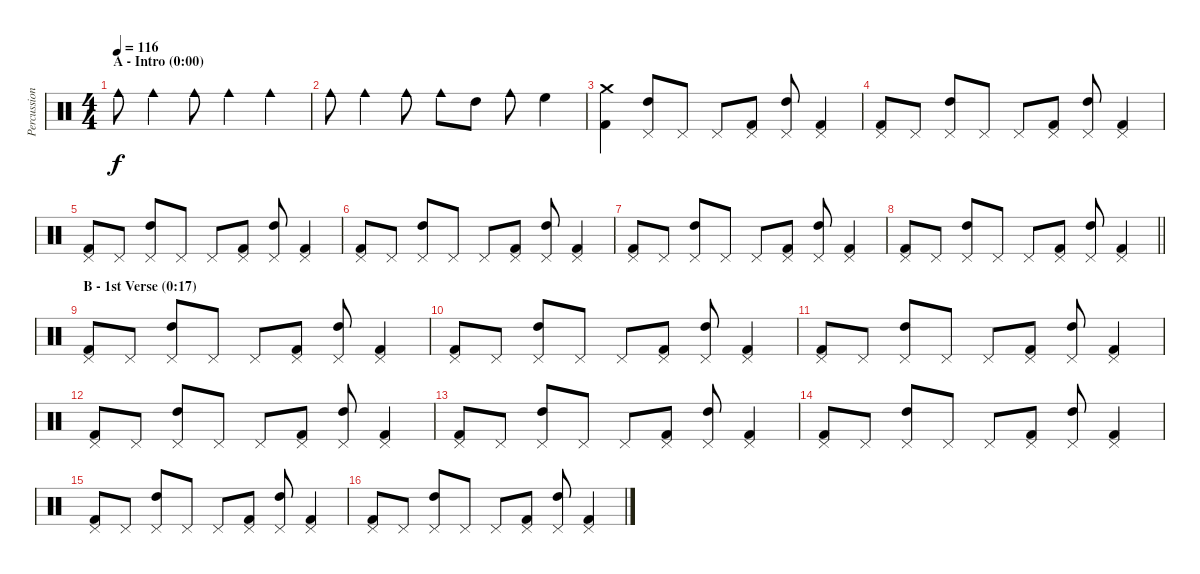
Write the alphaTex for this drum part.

\track ("Percussion" "Percussion") {instrument percussion}
\staff {score}
\articulation defaults
\ts (4 4)
\section ("" "A - Intro (0:00)")
\tempo 116
\clef neutral
\ks c "Cowbell medium (hit)".8{dy f} "Cowbell medium (hit)".4 "Cowbell medium (hit)".8 "Cowbell medium (hit)".4 "Cowbell medium (hit)".4
|
"Cowbell medium (hit)".8 "Cowbell medium (hit)".4 "Cowbell medium (hit)".8 "Cowbell medium (hit)".8 "High Tom (hit)".8 "Cowbell medium (hit)".8 "High Floor Tom (hit)".4 |
("Kick (hit) 2" "Crash medium (hit)").4 ("High Tom (hit)" "Pedal Hi-Hat (hit)").8 "Pedal Hi-Hat (hit)".8 "Pedal Hi-Hat (hit)".8 ("Kick (hit) 2" "Pedal Hi-Hat (hit)").8 ("High Tom (hit)" "Pedal Hi-Hat (hit)").8 ("Kick (hit) 2" "Pedal Hi-Hat (hit)").4 |
("Kick (hit) 2" "Pedal Hi-Hat (hit)").8 "Pedal Hi-Hat (hit)".8 ("High Tom (hit)" "Pedal Hi-Hat (hit)").8 "Pedal Hi-Hat (hit)".8 "Pedal Hi-Hat (hit)".8 ("Kick (hit) 2" "Pedal Hi-Hat (hit)").8 ("High Tom (hit)" "Pedal Hi-Hat (hit)").8 ("Kick (hit) 2" "Pedal Hi-Hat (hit)").4 |
("Kick (hit) 2" "Pedal Hi-Hat (hit)").8 "Pedal Hi-Hat (hit)".8 ("High Tom (hit)" "Pedal Hi-Hat (hit)").8 "Pedal Hi-Hat (hit)".8 "Pedal Hi-Hat (hit)".8 ("Kick (hit) 2" "Pedal Hi-Hat (hit)").8 ("High Tom (hit)" "Pedal Hi-Hat (hit)").8 ("Kick (hit) 2" "Pedal Hi-Hat (hit)").4 |
("Kick (hit) 2" "Pedal Hi-Hat (hit)").8 "Pedal Hi-Hat (hit)".8 ("High Tom (hit)" "Pedal Hi-Hat (hit)").8 "Pedal Hi-Hat (hit)".8 "Pedal Hi-Hat (hit)".8 ("Kick (hit) 2" "Pedal Hi-Hat (hit)").8 ("High Tom (hit)" "Pedal Hi-Hat (hit)").8 ("Kick (hit) 2" "Pedal Hi-Hat (hit)").4 |
("Kick (hit) 2" "Pedal Hi-Hat (hit)").8 "Pedal Hi-Hat (hit)".8 ("High Tom (hit)" "Pedal Hi-Hat (hit)").8 "Pedal Hi-Hat (hit)".8 "Pedal Hi-Hat (hit)".8 ("Kick (hit) 2" "Pedal Hi-Hat (hit)").8 ("High Tom (hit)" "Pedal Hi-Hat (hit)").8 ("Kick (hit) 2" "Pedal Hi-Hat (hit)").4 |
\barLineRight lightlight
("Kick (hit) 2" "Pedal Hi-Hat (hit)").8 "Pedal Hi-Hat (hit)".8 ("High Tom (hit)" "Pedal Hi-Hat (hit)").8 "Pedal Hi-Hat (hit)".8 "Pedal Hi-Hat (hit)".8 ("Kick (hit) 2" "Pedal Hi-Hat (hit)").8 ("High Tom (hit)" "Pedal Hi-Hat (hit)").8 ("Kick (hit) 2" "Pedal Hi-Hat (hit)").4 |
\section ("" "B - 1st Verse (0:17)")
("Kick (hit) 2" "Pedal Hi-Hat (hit)").8 "Pedal Hi-Hat (hit)".8 ("High Tom (hit)" "Pedal Hi-Hat (hit)").8 "Pedal Hi-Hat (hit)".8 "Pedal Hi-Hat (hit)".8 ("Kick (hit) 2" "Pedal Hi-Hat (hit)").8 ("High Tom (hit)" "Pedal Hi-Hat (hit)").8 ("Kick (hit) 2" "Pedal Hi-Hat (hit)").4 |
("Kick (hit) 2" "Pedal Hi-Hat (hit)").8 "Pedal Hi-Hat (hit)".8 ("High Tom (hit)" "Pedal Hi-Hat (hit)").8 "Pedal Hi-Hat (hit)".8 "Pedal Hi-Hat (hit)".8 ("Kick (hit) 2" "Pedal Hi-Hat (hit)").8 ("High Tom (hit)" "Pedal Hi-Hat (hit)").8 ("Kick (hit) 2" "Pedal Hi-Hat (hit)").4 |
("Kick (hit) 2" "Pedal Hi-Hat (hit)").8 "Pedal Hi-Hat (hit)".8 ("High Tom (hit)" "Pedal Hi-Hat (hit)").8 "Pedal Hi-Hat (hit)".8 "Pedal Hi-Hat (hit)".8 ("Kick (hit) 2" "Pedal Hi-Hat (hit)").8 ("High Tom (hit)" "Pedal Hi-Hat (hit)").8 ("Kick (hit) 2" "Pedal Hi-Hat (hit)").4 |
("Kick (hit) 2" "Pedal Hi-Hat (hit)").8 "Pedal Hi-Hat (hit)".8 ("High Tom (hit)" "Pedal Hi-Hat (hit)").8 "Pedal Hi-Hat (hit)".8 "Pedal Hi-Hat (hit)".8 ("Kick (hit) 2" "Pedal Hi-Hat (hit)").8 ("High Tom (hit)" "Pedal Hi-Hat (hit)").8 ("Kick (hit) 2" "Pedal Hi-Hat (hit)").4 |
("Kick (hit) 2" "Pedal Hi-Hat (hit)").8 "Pedal Hi-Hat (hit)".8 ("High Tom (hit)" "Pedal Hi-Hat (hit)").8 "Pedal Hi-Hat (hit)".8 "Pedal Hi-Hat (hit)".8 ("Kick (hit) 2" "Pedal Hi-Hat (hit)").8 ("High Tom (hit)" "Pedal Hi-Hat (hit)").8 ("Kick (hit) 2" "Pedal Hi-Hat (hit)").4 |
("Kick (hit) 2" "Pedal Hi-Hat (hit)").8 "Pedal Hi-Hat (hit)".8 ("High Tom (hit)" "Pedal Hi-Hat (hit)").8 "Pedal Hi-Hat (hit)".8 "Pedal Hi-Hat (hit)".8 ("Kick (hit) 2" "Pedal Hi-Hat (hit)").8 ("High Tom (hit)" "Pedal Hi-Hat (hit)").8 ("Kick (hit) 2" "Pedal Hi-Hat (hit)").4 |
("Kick (hit) 2" "Pedal Hi-Hat (hit)").8 "Pedal Hi-Hat (hit)".8 ("High Tom (hit)" "Pedal Hi-Hat (hit)").8 "Pedal Hi-Hat (hit)".8 "Pedal Hi-Hat (hit)".8 ("Kick (hit) 2" "Pedal Hi-Hat (hit)").8 ("High Tom (hit)" "Pedal Hi-Hat (hit)").8 ("Kick (hit) 2" "Pedal Hi-Hat (hit)").4 |
("Kick (hit) 2" "Pedal Hi-Hat (hit)").8 "Pedal Hi-Hat (hit)".8 ("High Tom (hit)" "Pedal Hi-Hat (hit)").8 "Pedal Hi-Hat (hit)".8 "Pedal Hi-Hat (hit)".8 ("Kick (hit) 2" "Pedal Hi-Hat (hit)").8 ("High Tom (hit)" "Pedal Hi-Hat (hit)").8 ("Kick (hit) 2" "Pedal Hi-Hat (hit)").4
